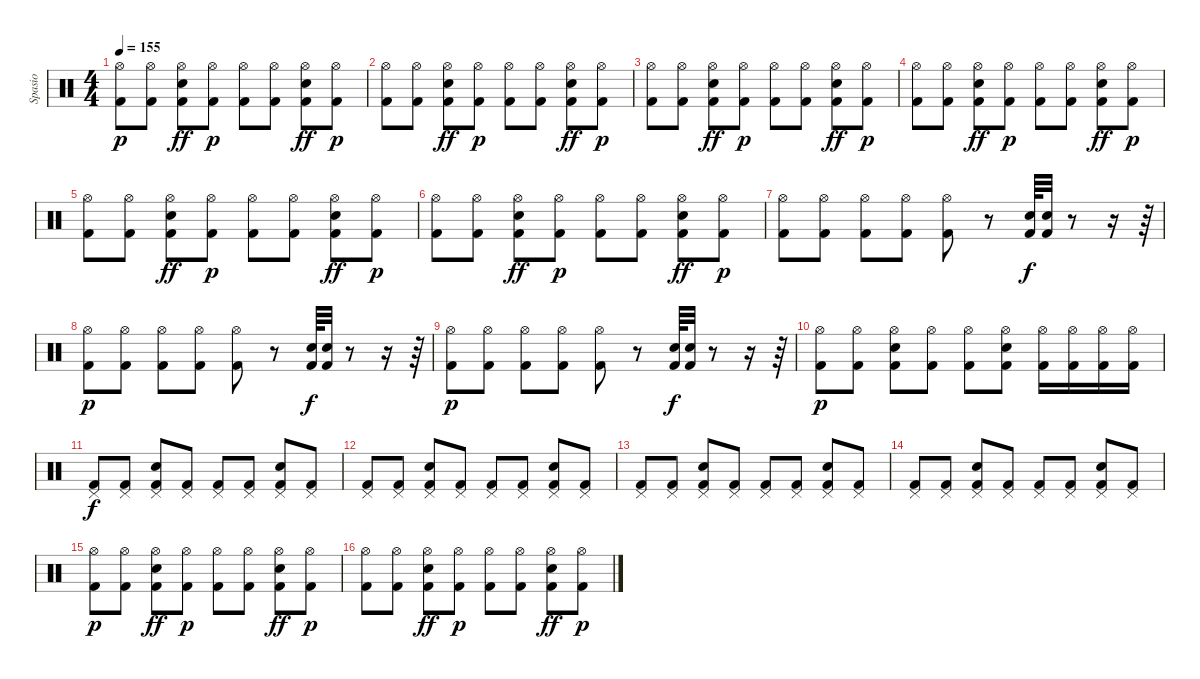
\track ("Spasio" "Spasio") {instrument percussion}
\staff {score}
\articulation defaults
\ts (4 4)
\tempo 155
\clef neutral
\ks c
("Hi-Hat (open)" "Kick (hit) 2").8{dy p} ("Hi-Hat (open)" "Kick (hit) 2").8 ("Hi-Hat (open)" "Electric Snare (hit)" "Kick (hit) 2").8{dy ff} ("Hi-Hat (open)" "Kick (hit) 2").8{dy p} ("Hi-Hat (open)" "Kick (hit) 2").8 ("Hi-Hat (open)" "Kick (hit) 2").8 ("Hi-Hat (open)" "Electric Snare (hit)" "Kick (hit) 2").8{dy ff} ("Hi-Hat (open)" "Kick (hit) 2").8{dy p} |
("Hi-Hat (open)" "Kick (hit) 2").8 ("Hi-Hat (open)" "Kick (hit) 2").8 ("Hi-Hat (open)" "Electric Snare (hit)" "Kick (hit) 2").8{dy ff} ("Hi-Hat (open)" "Kick (hit) 2").8{dy p} ("Hi-Hat (open)" "Kick (hit) 2").8 ("Hi-Hat (open)" "Kick (hit) 2").8 ("Hi-Hat (open)" "Electric Snare (hit)" "Kick (hit) 2").8{dy ff} ("Hi-Hat (open)" "Kick (hit) 2").8{dy p} |
("Hi-Hat (open)" "Kick (hit) 2").8 ("Hi-Hat (open)" "Kick (hit) 2").8 ("Hi-Hat (open)" "Electric Snare (hit)" "Kick (hit) 2").8{dy ff} ("Hi-Hat (open)" "Kick (hit) 2").8{dy p} ("Hi-Hat (open)" "Kick (hit) 2").8 ("Hi-Hat (open)" "Kick (hit) 2").8 ("Hi-Hat (open)" "Electric Snare (hit)" "Kick (hit) 2").8{dy ff} ("Hi-Hat (open)" "Kick (hit) 2").8{dy p} |
("Hi-Hat (open)" "Kick (hit) 2").8 ("Hi-Hat (open)" "Kick (hit) 2").8 ("Hi-Hat (open)" "Electric Snare (hit)" "Kick (hit) 2").8{dy ff} ("Hi-Hat (open)" "Kick (hit) 2").8{dy p} ("Hi-Hat (open)" "Kick (hit) 2").8 ("Hi-Hat (open)" "Kick (hit) 2").8 ("Hi-Hat (open)" "Electric Snare (hit)" "Kick (hit) 2").8{dy ff} ("Hi-Hat (open)" "Kick (hit) 2").8{dy p} |
("Hi-Hat (open)" "Kick (hit) 2").8 ("Hi-Hat (open)" "Kick (hit) 2").8 ("Hi-Hat (open)" "Electric Snare (hit)" "Kick (hit) 2").8{dy ff} ("Hi-Hat (open)" "Kick (hit) 2").8{dy p} ("Hi-Hat (open)" "Kick (hit) 2").8 ("Hi-Hat (open)" "Kick (hit) 2").8 ("Hi-Hat (open)" "Electric Snare (hit)" "Kick (hit) 2").8{dy ff} ("Hi-Hat (open)" "Kick (hit) 2").8{dy p} |
("Hi-Hat (open)" "Kick (hit) 2").8 ("Hi-Hat (open)" "Kick (hit) 2").8 ("Hi-Hat (open)" "Electric Snare (hit)" "Kick (hit) 2").8{dy ff} ("Hi-Hat (open)" "Kick (hit) 2").8{dy p} ("Hi-Hat (open)" "Kick (hit) 2").8 ("Hi-Hat (open)" "Kick (hit) 2").8 ("Hi-Hat (open)" "Electric Snare (hit)" "Kick (hit) 2").8{dy ff} ("Hi-Hat (open)" "Kick (hit) 2").8{dy p} |
("Hi-Hat (open)" "Kick (hit) 2").8 ("Hi-Hat (open)" "Kick (hit) 2").8 ("Hi-Hat (open)" "Kick (hit) 2").8 ("Hi-Hat (open)" "Kick (hit) 2").8 ("Hi-Hat (open)" "Kick (hit) 2").8 r.8 ("Electric Snare (hit)" "Kick (hit) 2").64{dy f} ("Electric Snare (hit)" "Kick (hit) 2").32 r.8 r.16 r.64 |
("Hi-Hat (open)" "Kick (hit) 2").8{dy p} ("Hi-Hat (open)" "Kick (hit) 2").8 ("Hi-Hat (open)" "Kick (hit) 2").8 ("Hi-Hat (open)" "Kick (hit) 2").8 ("Hi-Hat (open)" "Kick (hit) 2").8 r.8 ("Electric Snare (hit)" "Kick (hit) 2").64{dy f} ("Electric Snare (hit)" "Kick (hit) 2").32 r.8 r.16 r.64 |
("Hi-Hat (open)" "Kick (hit) 2").8{dy p} ("Hi-Hat (open)" "Kick (hit) 2").8 ("Hi-Hat (open)" "Kick (hit) 2").8 ("Hi-Hat (open)" "Kick (hit) 2").8 ("Hi-Hat (open)" "Kick (hit) 2").8 r.8 ("Electric Snare (hit)" "Kick (hit) 2").64{dy f} ("Electric Snare (hit)" "Kick (hit) 2").32 r.8 r.16 r.64 |
("Hi-Hat (open)" "Kick (hit) 2").8{dy p} ("Hi-Hat (open)" "Kick (hit) 2").8 ("Hi-Hat (open)" "Electric Snare (hit)" "Kick (hit) 2").8 ("Hi-Hat (open)" "Kick (hit) 2").8 ("Hi-Hat (open)" "Kick (hit) 2").8 ("Hi-Hat (open)" "Electric Snare (hit)" "Kick (hit) 2").8 ("Hi-Hat (open)" "Kick (hit) 2").16 ("Hi-Hat (open)" "Kick (hit) 2").16 ("Hi-Hat (open)" "Kick (hit) 2").16 ("Hi-Hat (open)" "Kick (hit) 2").16 |
("Pedal Hi-Hat (hit)" "Kick (hit) 2").8{dy f} ("Pedal Hi-Hat (hit)" "Kick (hit) 2").8 ("Pedal Hi-Hat (hit)" "Electric Snare (hit)" "Kick (hit) 2").8 ("Pedal Hi-Hat (hit)" "Kick (hit) 2").8 ("Pedal Hi-Hat (hit)" "Kick (hit) 2").8 ("Pedal Hi-Hat (hit)" "Kick (hit) 2").8 ("Pedal Hi-Hat (hit)" "Electric Snare (hit)" "Kick (hit) 2").8 ("Pedal Hi-Hat (hit)" "Kick (hit) 2").8 |
("Pedal Hi-Hat (hit)" "Kick (hit) 2").8 ("Pedal Hi-Hat (hit)" "Kick (hit) 2").8 ("Pedal Hi-Hat (hit)" "Electric Snare (hit)" "Kick (hit) 2").8 ("Pedal Hi-Hat (hit)" "Kick (hit) 2").8 ("Pedal Hi-Hat (hit)" "Kick (hit) 2").8 ("Pedal Hi-Hat (hit)" "Kick (hit) 2").8 ("Pedal Hi-Hat (hit)" "Electric Snare (hit)" "Kick (hit) 2").8 ("Pedal Hi-Hat (hit)" "Kick (hit) 2").8 |
("Pedal Hi-Hat (hit)" "Kick (hit) 2").8 ("Pedal Hi-Hat (hit)" "Kick (hit) 2").8 ("Pedal Hi-Hat (hit)" "Electric Snare (hit)" "Kick (hit) 2").8 ("Pedal Hi-Hat (hit)" "Kick (hit) 2").8 ("Pedal Hi-Hat (hit)" "Kick (hit) 2").8 ("Pedal Hi-Hat (hit)" "Kick (hit) 2").8 ("Pedal Hi-Hat (hit)" "Electric Snare (hit)" "Kick (hit) 2").8 ("Pedal Hi-Hat (hit)" "Kick (hit) 2").8 |
("Pedal Hi-Hat (hit)" "Kick (hit) 2").8 ("Pedal Hi-Hat (hit)" "Kick (hit) 2").8 ("Pedal Hi-Hat (hit)" "Electric Snare (hit)" "Kick (hit) 2").8 ("Pedal Hi-Hat (hit)" "Kick (hit) 2").8 ("Pedal Hi-Hat (hit)" "Kick (hit) 2").8 ("Pedal Hi-Hat (hit)" "Kick (hit) 2").8 ("Pedal Hi-Hat (hit)" "Electric Snare (hit)" "Kick (hit) 2").8 ("Pedal Hi-Hat (hit)" "Kick (hit) 2").8 |
("Hi-Hat (open)" "Kick (hit) 2").8{dy p} ("Hi-Hat (open)" "Kick (hit) 2").8 ("Hi-Hat (open)" "Electric Snare (hit)" "Kick (hit) 2").8{dy ff} ("Hi-Hat (open)" "Kick (hit) 2").8{dy p} ("Hi-Hat (open)" "Kick (hit) 2").8 ("Hi-Hat (open)" "Kick (hit) 2").8 ("Hi-Hat (open)" "Electric Snare (hit)" "Kick (hit) 2").8{dy ff} ("Hi-Hat (open)" "Kick (hit) 2").8{dy p} |
("Hi-Hat (open)" "Kick (hit) 2").8 ("Hi-Hat (open)" "Kick (hit) 2").8 ("Hi-Hat (open)" "Electric Snare (hit)" "Kick (hit) 2").8{dy ff} ("Hi-Hat (open)" "Kick (hit) 2").8{dy p} ("Hi-Hat (open)" "Kick (hit) 2").8 ("Hi-Hat (open)" "Kick (hit) 2").8 ("Hi-Hat (open)" "Electric Snare (hit)" "Kick (hit) 2").8{dy ff} ("Hi-Hat (open)" "Kick (hit) 2").8{dy p}
